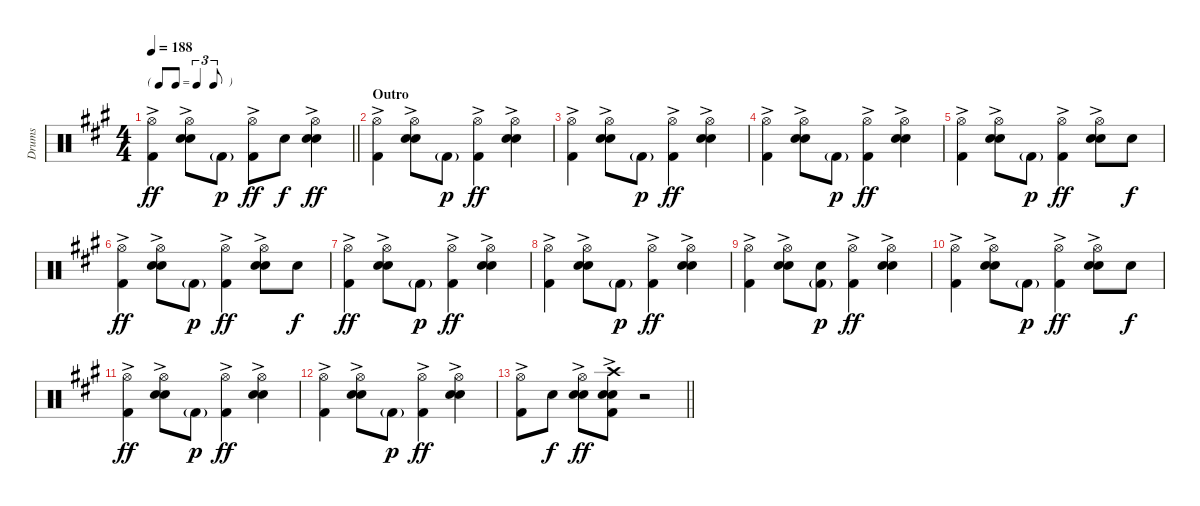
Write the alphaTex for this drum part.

\track ("Drums" "Drums") {instrument percussion}
\staff {score}
\articulation defaults
\ts (4 4)
\tf triplet8th
\tempo 188
\clef neutral
\barLineRight lightlight
\ks a
("Hi-Hat (open)" "Kick (hit) 2"{ac}).4{dy ff} ("Hi-Hat (open)" "Electric Snare (hit)"{ac} "Snare (hit) 2").8 "Kick (hit) 2"{g}.8{dy p} ("Hi-Hat (open)" "Kick (hit) 2"{ac}).8{dy ff} "Snare (hit) 2".8{dy f} ("Hi-Hat (open)" "Electric Snare (hit)"{ac} "Snare (hit) 2").4{dy ff} |
\section ("" "Outro")
("Hi-Hat (open)" "Kick (hit) 2"{ac}).4 ("Hi-Hat (open)" "Electric Snare (hit)"{ac} "Snare (hit) 2").8 "Kick (hit) 2"{g}.8{dy p} ("Hi-Hat (open)" "Kick (hit) 2"{ac}).4{dy ff} ("Hi-Hat (open)" "Electric Snare (hit)"{ac} "Snare (hit) 2").4 |
("Hi-Hat (open)" "Kick (hit) 2"{ac}).4 ("Hi-Hat (open)" "Electric Snare (hit)"{ac} "Snare (hit) 2").8 "Kick (hit) 2"{g}.8{dy p} ("Hi-Hat (open)" "Kick (hit) 2"{ac}).4{dy ff} ("Hi-Hat (open)" "Electric Snare (hit)"{ac} "Snare (hit) 2").4 |
("Hi-Hat (open)" "Kick (hit) 2"{ac}).4 ("Hi-Hat (open)" "Electric Snare (hit)"{ac} "Snare (hit) 2").8 "Kick (hit) 2"{g}.8{dy p} ("Hi-Hat (open)" "Kick (hit) 2"{ac}).4{dy ff} ("Hi-Hat (open)" "Electric Snare (hit)"{ac} "Snare (hit) 2").4 |
("Hi-Hat (open)" "Kick (hit) 2"{ac}).4 ("Hi-Hat (open)" "Electric Snare (hit)"{ac} "Snare (hit) 2").8 "Kick (hit) 2"{g}.8{dy p} ("Hi-Hat (open)" "Kick (hit) 2"{ac}).4{dy ff} ("Hi-Hat (open)" "Electric Snare (hit)"{ac} "Snare (hit) 2").8 "Snare (hit) 2".8{dy f} |
("Hi-Hat (open)" "Kick (hit) 2"{ac}).4{dy ff} ("Hi-Hat (open)" "Electric Snare (hit)"{ac} "Snare (hit) 2").8 "Kick (hit) 2"{g}.8{dy p} ("Hi-Hat (open)" "Kick (hit) 2"{ac}).4{dy ff} ("Hi-Hat (open)" "Electric Snare (hit)"{ac} "Snare (hit) 2").8 "Snare (hit) 2".8{dy f} |
("Hi-Hat (open)" "Kick (hit) 2"{ac}).4{dy ff} ("Hi-Hat (open)" "Electric Snare (hit)"{ac} "Snare (hit) 2").8 "Kick (hit) 2"{g}.8{dy p} ("Hi-Hat (open)" "Kick (hit) 2"{ac}).4{dy ff} ("Hi-Hat (open)" "Electric Snare (hit)"{ac} "Snare (hit) 2").4 |
("Hi-Hat (open)" "Kick (hit) 2"{ac}).4 ("Hi-Hat (open)" "Electric Snare (hit)"{ac} "Snare (hit) 2").8 "Kick (hit) 2"{g}.8{dy p} ("Hi-Hat (open)" "Kick (hit) 2"{ac}).4{dy ff} ("Hi-Hat (open)" "Electric Snare (hit)"{ac} "Snare (hit) 2").4 |
("Hi-Hat (open)" "Kick (hit) 2"{ac}).4 ("Hi-Hat (open)" "Electric Snare (hit)"{ac} "Snare (hit) 2").8 ("Snare (hit) 2" "Kick (hit) 2"{g}).8{dy p} ("Hi-Hat (open)" "Kick (hit) 2"{ac}).4{dy ff} ("Hi-Hat (open)" "Electric Snare (hit)"{ac} "Snare (hit) 2").4 |
("Hi-Hat (open)" "Kick (hit) 2"{ac}).4 ("Hi-Hat (open)" "Electric Snare (hit)"{ac} "Snare (hit) 2").8 "Kick (hit) 2"{g}.8{dy p} ("Hi-Hat (open)" "Kick (hit) 2"{ac}).4{dy ff} ("Hi-Hat (open)" "Electric Snare (hit)"{ac} "Snare (hit) 2").8 "Snare (hit) 2".8{dy f} |
("Hi-Hat (open)" "Kick (hit) 2"{ac}).4{dy ff} ("Hi-Hat (open)" "Electric Snare (hit)"{ac} "Snare (hit) 2").8 "Kick (hit) 2"{g}.8{dy p} ("Hi-Hat (open)" "Kick (hit) 2"{ac}).4{dy ff} ("Hi-Hat (open)" "Electric Snare (hit)"{ac} "Snare (hit) 2").4 |
("Hi-Hat (open)" "Kick (hit) 2"{ac}).4 ("Hi-Hat (open)" "Electric Snare (hit)"{ac} "Snare (hit) 2").8 "Kick (hit) 2"{g}.8{dy p} ("Hi-Hat (open)" "Kick (hit) 2"{ac}).4{dy ff} ("Hi-Hat (open)" "Electric Snare (hit)"{ac} "Snare (hit) 2").4 |
\barLineRight lightlight
("Hi-Hat (open)" "Kick (hit) 2"{ac}).8 "Snare (hit) 2".8{dy f} ("Hi-Hat (open)" "Electric Snare (hit)"{ac} "Snare (hit) 2").8{dy ff} ("Crash high (hit)" "Electric Snare (hit)" "Snare (hit) 2" "Kick (hit) 2"{ac}).8 r.2
